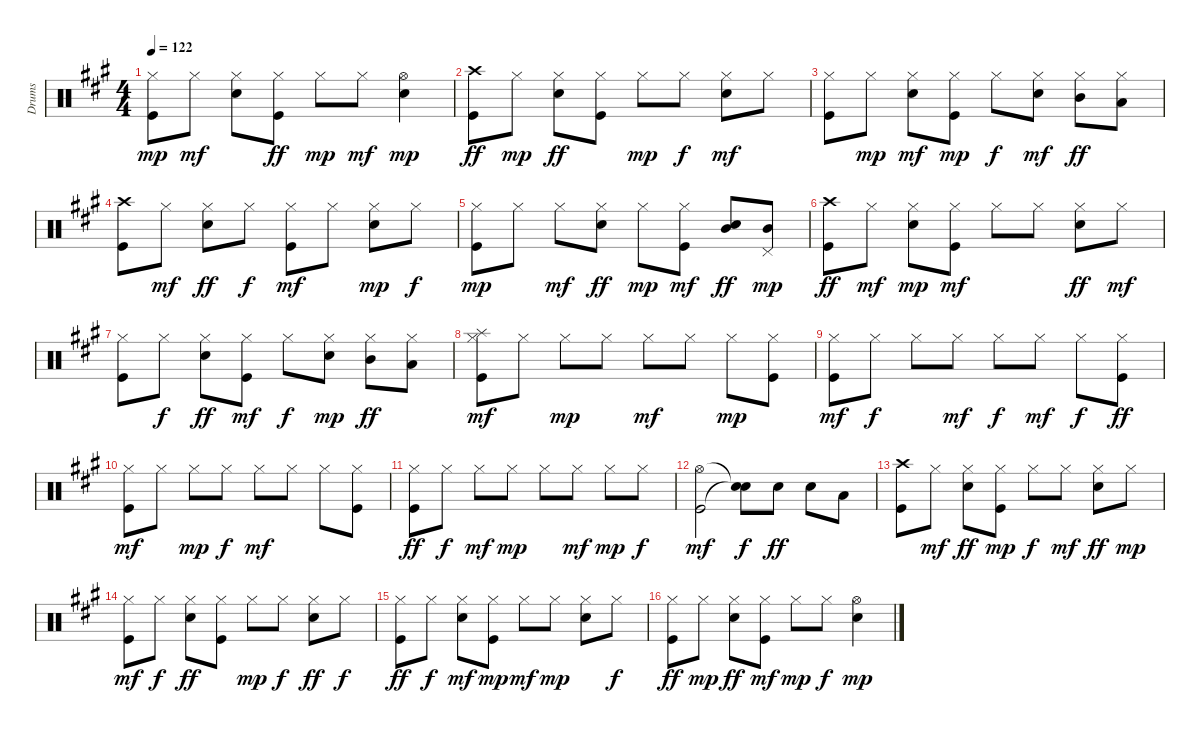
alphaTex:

\track ("Drums" "Drums") {instrument percussion}
\staff {score}
\articulation defaults
\ts (4 4)
\tempo 122
\clef neutral
\ks a
("Kick (hit)" "Hi-Hat (closed)").8{dy mp} "Hi-Hat (closed)".8{dy mf} ("Electric Snare (hit)" "Hi-Hat (closed)").8 ("Kick (hit)" "Hi-Hat (closed)").8{dy ff} "Hi-Hat (closed)".8{dy mp} "Hi-Hat (closed)".8{dy mf} ("Electric Snare (hit)" "Hi-Hat (open)").4{dy mp} |
("Kick (hit)" "Crash high (hit)").8{dy ff} "Hi-Hat (closed)".8{dy mp} ("Electric Snare (hit)" "Hi-Hat (closed)").8{dy ff} ("Kick (hit)" "Hi-Hat (closed)").8 "Hi-Hat (closed)".8{dy mp} "Hi-Hat (closed)".8{dy f} ("Electric Snare (hit)" "Hi-Hat (closed)").8{dy mf} "Hi-Hat (closed)".8 |
("Kick (hit)" "Hi-Hat (closed)").8 "Hi-Hat (closed)".8{dy mp} ("Electric Snare (hit)" "Hi-Hat (closed)").8{dy mf} ("Kick (hit)" "Hi-Hat (closed)").8{dy mp} "Hi-Hat (closed)".8{dy f} ("Electric Snare (hit)" "Hi-Hat (closed)").8{dy mf} ("Hi-Hat (closed)" "Mid Tom (hit)").8{dy ff} ("Hi-Hat (closed)" "Low Tom (hit)").8 |
("Kick (hit)" "Crash high (hit)").8 "Hi-Hat (closed)".8{dy mf} ("Electric Snare (hit)" "Hi-Hat (closed)").8{dy ff} "Hi-Hat (closed)".8{dy f} ("Kick (hit)" "Hi-Hat (closed)").8{dy mf} "Hi-Hat (closed)".8 ("Electric Snare (hit)" "Hi-Hat (closed)").8{dy mp} "Hi-Hat (closed)".8{dy f} |
("Kick (hit)" "Hi-Hat (closed)").8{dy mp} "Hi-Hat (closed)".8 "Hi-Hat (closed)".8{dy mf} ("Electric Snare (hit)" "Hi-Hat (closed)").8{dy ff} "Hi-Hat (closed)".8{dy mp} ("Kick (hit)" "Hi-Hat (closed)").8{dy mf} ("Electric Snare (hit)" "Mid Tom (hit)").8{dy ff} ("Pedal Hi-Hat (hit)" "Mid Tom (hit)").8{dy mp} |
("Kick (hit)" "Crash high (hit)").8{dy ff} "Hi-Hat (closed)".8{dy mf} ("Electric Snare (hit)" "Hi-Hat (closed)").8{dy mp} ("Kick (hit)" "Hi-Hat (closed)").8{dy mf} "Hi-Hat (closed)".8 "Hi-Hat (closed)".8 ("Electric Snare (hit)" "Hi-Hat (closed)").8{dy ff} "Hi-Hat (closed)".8{dy mf} |
("Kick (hit)" "Hi-Hat (closed)").8 "Hi-Hat (closed)".8{dy f} ("Electric Snare (hit)" "Hi-Hat (closed)").8{dy ff} ("Kick (hit)" "Hi-Hat (closed)").8{dy mf} "Hi-Hat (closed)".8{dy f} ("Electric Snare (hit)" "Hi-Hat (closed)").8{dy mp} ("Hi-Hat (closed)" "Mid Tom (hit)").8{dy ff} ("Hi-Hat (closed)" "Low Tom (hit)").8 |
("Kick (hit)" "Hi-Hat (closed)" "Splash (hit)").8{dy mf} "Hi-Hat (closed)".8 "Hi-Hat (closed)".8{dy mp} "Hi-Hat (closed)".8 "Hi-Hat (closed)".8{dy mf} "Hi-Hat (closed)".8 "Hi-Hat (closed)".8{dy mp} ("Kick (hit)" "Hi-Hat (closed)").8 |
("Kick (hit)" "Hi-Hat (closed)").8{dy mf} "Hi-Hat (closed)".8{dy f} "Hi-Hat (closed)".8 "Hi-Hat (closed)".8{dy mf} "Hi-Hat (closed)".8{dy f} "Hi-Hat (closed)".8{dy mf} "Hi-Hat (closed)".8{dy f} ("Kick (hit)" "Hi-Hat (closed)").8{dy ff} |
("Kick (hit)" "Hi-Hat (closed)").8{dy mf} "Hi-Hat (closed)".8 "Hi-Hat (closed)".8{dy mp} "Hi-Hat (closed)".8{dy f} "Hi-Hat (closed)".8{dy mf} "Hi-Hat (closed)".8 "Hi-Hat (closed)".8 ("Kick (hit)" "Hi-Hat (closed)").8 |
("Kick (hit)" "Hi-Hat (closed)").8{dy ff} "Hi-Hat (closed)".8{dy f} "Hi-Hat (closed)".8{dy mf} "Hi-Hat (closed)".8{dy mp} "Hi-Hat (closed)".8 "Hi-Hat (closed)".8{dy mf} "Hi-Hat (closed)".8{dy mp} "Hi-Hat (closed)".8{dy f} |
("Kick (hit)" "Hi-Hat (open)").2{dy mf} ("Snare (hit)"{t} "Snare (hit)"{t}).8{dy f} "Electric Snare (hit)".8{dy ff} "Electric Snare (hit)".8 "Low Tom (hit)".8 |
("Kick (hit)" "Crash high (hit)").8 "Hi-Hat (closed)".8{dy mf} ("Electric Snare (hit)" "Hi-Hat (closed)").8{dy ff} ("Kick (hit)" "Hi-Hat (closed)").8{dy mp} "Hi-Hat (closed)".8{dy f} "Hi-Hat (closed)".8{dy mf} ("Electric Snare (hit)" "Hi-Hat (closed)").8{dy ff} "Hi-Hat (closed)".8{dy mp} |
("Kick (hit)" "Hi-Hat (closed)").8{dy mf} "Hi-Hat (closed)".8{dy f} ("Electric Snare (hit)" "Hi-Hat (closed)").8{dy ff} ("Kick (hit)" "Hi-Hat (closed)").8 "Hi-Hat (closed)".8{dy mp} "Hi-Hat (closed)".8{dy f} ("Electric Snare (hit)" "Hi-Hat (closed)").8{dy ff} "Hi-Hat (closed)".8{dy f} |
("Kick (hit)" "Hi-Hat (closed)").8{dy ff} "Hi-Hat (closed)".8{dy f} ("Electric Snare (hit)" "Hi-Hat (closed)").8{dy mf} ("Kick (hit)" "Hi-Hat (closed)").8{dy mp} "Hi-Hat (closed)".8{dy mf} "Hi-Hat (closed)".8{dy mp} ("Electric Snare (hit)" "Hi-Hat (closed)").8 "Hi-Hat (closed)".8{dy f} |
("Kick (hit)" "Hi-Hat (closed)").8{dy ff} "Hi-Hat (closed)".8{dy mp} ("Electric Snare (hit)" "Hi-Hat (closed)").8{dy ff} ("Kick (hit)" "Hi-Hat (closed)").8{dy mf} "Hi-Hat (closed)".8{dy mp} "Hi-Hat (closed)".8{dy f} ("Electric Snare (hit)" "Hi-Hat (open)").4{dy mp}
